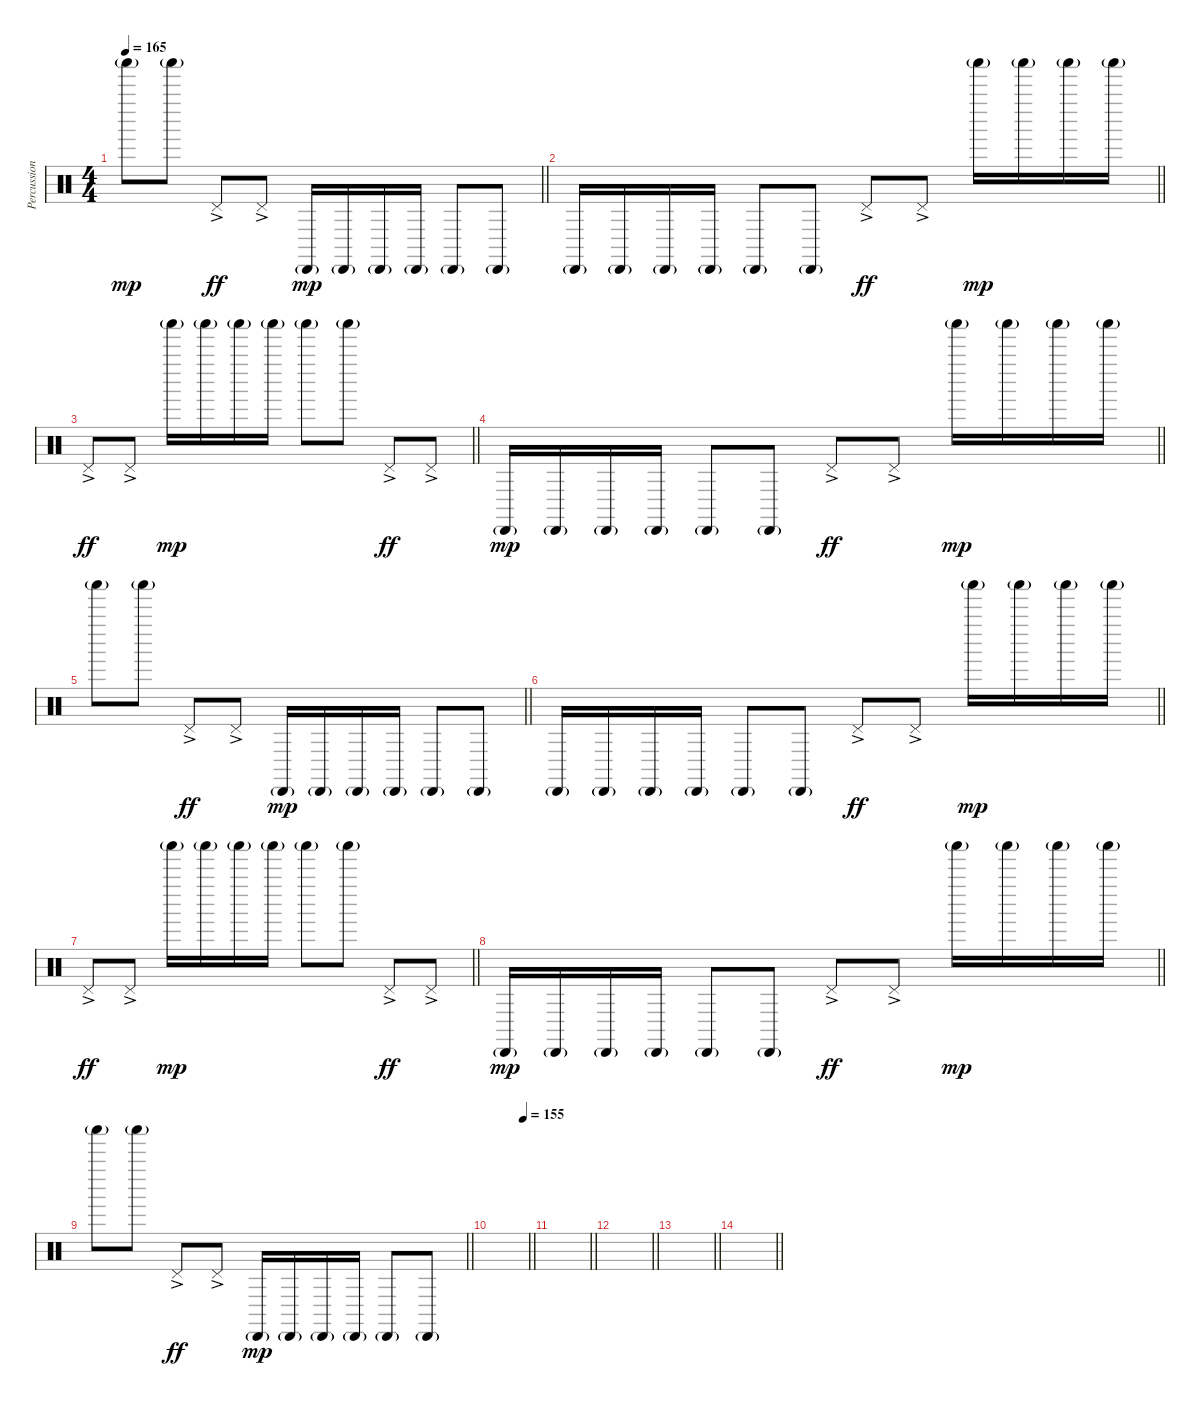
\track ("Percussion" "Percussion") {instrument percussion}
\staff {score}
\articulation defaults
\ts (4 4)
\tempo 165
\clef neutral
\barLineRight lightlight
\ks c "Shaker (hit)"{g}.8{dy mp} "Shaker (hit)"{g}.8 "Pedal Hi-Hat (hit)"{ac}.8{dy ff} "Pedal Hi-Hat (hit)"{ac}.8 "Cabasa (hit)"{g}.16{dy mp} "Cabasa (hit)"{g}.16 "Cabasa (hit)"{g}.16 "Cabasa (hit)"{g}.16 "Cabasa (hit)"{g}.8 "Cabasa (hit)"{g}.8
|
\barLineRight lightlight "Cabasa (hit)"{g}.16 "Cabasa (hit)"{g}.16 "Cabasa (hit)"{g}.16 "Cabasa (hit)"{g}.16 "Cabasa (hit)"{g}.8 "Cabasa (hit)"{g}.8 "Pedal Hi-Hat (hit)"{ac}.8{dy ff} "Pedal Hi-Hat (hit)"{ac}.8 "Shaker (hit)"{g}.16{dy mp} "Shaker (hit)"{g}.16 "Shaker (hit)"{g}.16 "Shaker (hit)"{g}.16
|
\barLineRight lightlight "Pedal Hi-Hat (hit)"{ac}.8{dy ff} "Pedal Hi-Hat (hit)"{ac}.8 "Shaker (hit)"{g}.16{dy mp} "Shaker (hit)"{g}.16 "Shaker (hit)"{g}.16 "Shaker (hit)"{g}.16 "Shaker (hit)"{g}.8 "Shaker (hit)"{g}.8 "Pedal Hi-Hat (hit)"{ac}.8{dy ff} "Pedal Hi-Hat (hit)"{ac}.8
|
\barLineRight lightlight "Cabasa (hit)"{g}.16{dy mp} "Cabasa (hit)"{g}.16 "Cabasa (hit)"{g}.16 "Cabasa (hit)"{g}.16 "Cabasa (hit)"{g}.8 "Cabasa (hit)"{g}.8 "Pedal Hi-Hat (hit)"{ac}.8{dy ff} "Pedal Hi-Hat (hit)"{ac}.8 "Shaker (hit)"{g}.16{dy mp} "Shaker (hit)"{g}.16 "Shaker (hit)"{g}.16 "Shaker (hit)"{g}.16
|
\barLineRight lightlight "Shaker (hit)"{g}.8 "Shaker (hit)"{g}.8 "Pedal Hi-Hat (hit)"{ac}.8{dy ff} "Pedal Hi-Hat (hit)"{ac}.8 "Cabasa (hit)"{g}.16{dy mp} "Cabasa (hit)"{g}.16 "Cabasa (hit)"{g}.16 "Cabasa (hit)"{g}.16 "Cabasa (hit)"{g}.8 "Cabasa (hit)"{g}.8
|
\barLineRight lightlight "Cabasa (hit)"{g}.16 "Cabasa (hit)"{g}.16 "Cabasa (hit)"{g}.16 "Cabasa (hit)"{g}.16 "Cabasa (hit)"{g}.8 "Cabasa (hit)"{g}.8 "Pedal Hi-Hat (hit)"{ac}.8{dy ff} "Pedal Hi-Hat (hit)"{ac}.8 "Shaker (hit)"{g}.16{dy mp} "Shaker (hit)"{g}.16 "Shaker (hit)"{g}.16 "Shaker (hit)"{g}.16
|
\barLineRight lightlight "Pedal Hi-Hat (hit)"{ac}.8{dy ff} "Pedal Hi-Hat (hit)"{ac}.8 "Shaker (hit)"{g}.16{dy mp} "Shaker (hit)"{g}.16 "Shaker (hit)"{g}.16 "Shaker (hit)"{g}.16 "Shaker (hit)"{g}.8 "Shaker (hit)"{g}.8 "Pedal Hi-Hat (hit)"{ac}.8{dy ff} "Pedal Hi-Hat (hit)"{ac}.8
|
\barLineRight lightlight "Cabasa (hit)"{g}.16{dy mp} "Cabasa (hit)"{g}.16 "Cabasa (hit)"{g}.16 "Cabasa (hit)"{g}.16 "Cabasa (hit)"{g}.8 "Cabasa (hit)"{g}.8 "Pedal Hi-Hat (hit)"{ac}.8{dy ff} "Pedal Hi-Hat (hit)"{ac}.8 "Shaker (hit)"{g}.16{dy mp} "Shaker (hit)"{g}.16 "Shaker (hit)"{g}.16 "Shaker (hit)"{g}.16
|
\barLineRight lightlight "Shaker (hit)"{g}.8 "Shaker (hit)"{g}.8 "Pedal Hi-Hat (hit)"{ac}.8{dy ff} "Pedal Hi-Hat (hit)"{ac}.8 "Cabasa (hit)"{g}.16{dy mp} "Cabasa (hit)"{g}.16 "Cabasa (hit)"{g}.16 "Cabasa (hit)"{g}.16 "Cabasa (hit)"{g}.8 "Cabasa (hit)"{g}.8
|
\tempo (155 0.875)
\barLineRight lightlight
|
\barLineRight lightlight
|
\barLineRight lightlight
|
\barLineRight lightlight
|
\barLineRight lightlight
